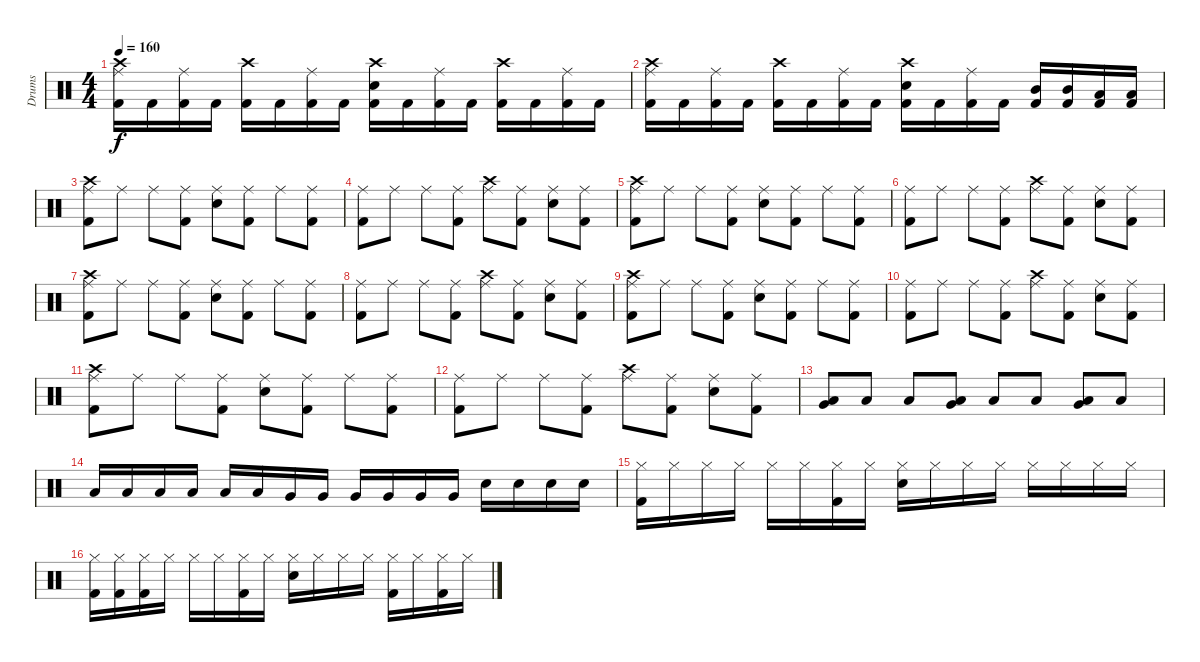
\track ("Drums" "Drums") {instrument percussion}
\staff {score}
\articulation defaults
\ts (4 4)
\tempo 160
\clef neutral
\ks c
("Crash high (hit)" "Ride (middle)" "Kick (hit) 2").16{dy f} "Kick (hit) 2".16 ("Ride (middle)" "Kick (hit) 2").16 "Kick (hit) 2".16 ("Crash high (hit)" "Kick (hit) 2").16 "Kick (hit) 2".16 ("Ride (middle)" "Kick (hit) 2").16 "Kick (hit) 2".16 ("Crash high (hit)" "Electric Snare (hit)" "Kick (hit) 2").16 "Kick (hit) 2".16 ("Ride (middle)" "Kick (hit) 2").16 "Kick (hit) 2".16 ("Crash high (hit)" "Kick (hit) 2").16 "Kick (hit) 2".16 ("Ride (middle)" "Kick (hit) 2").16 "Kick (hit) 2".16 |
("Crash high (hit)" "Ride (middle)" "Kick (hit) 2").16 "Kick (hit) 2".16 ("Ride (middle)" "Kick (hit) 2").16 "Kick (hit) 2".16 ("Crash high (hit)" "Kick (hit) 2").16 "Kick (hit) 2".16 ("Ride (middle)" "Kick (hit) 2").16 "Kick (hit) 2".16 ("Crash high (hit)" "Electric Snare (hit)" "Kick (hit) 2").16 "Kick (hit) 2".16 ("Ride (middle)" "Kick (hit) 2").16 "Kick (hit) 2".16 ("Mid Tom (hit)" "Kick (hit) 2").16 ("Mid Tom (hit)" "Kick (hit) 2").16 ("Low Tom (hit)" "Kick (hit) 2").16 ("Low Tom (hit)" "Kick (hit) 2").16 |
("Ride (middle)" "Crash high (hit)" "Kick (hit) 2").8 "Ride (middle)".8 "Ride (middle)".8 ("Ride (middle)" "Kick (hit) 2").8 ("Ride (middle)" "Electric Snare (hit)").8 ("Ride (middle)" "Kick (hit) 2").8 "Ride (middle)".8 ("Ride (middle)" "Kick (hit) 2").8 |
("Ride (middle)" "Kick (hit) 2").8 "Ride (middle)".8 "Ride (middle)".8 ("Ride (middle)" "Kick (hit) 2").8 ("Ride (middle)" "Crash high (hit)").8 ("Ride (middle)" "Kick (hit) 2").8 ("Ride (middle)" "Electric Snare (hit)").8 ("Ride (middle)" "Kick (hit) 2").8 |
("Ride (middle)" "Crash high (hit)" "Kick (hit) 2").8 "Ride (middle)".8 "Ride (middle)".8 ("Ride (middle)" "Kick (hit) 2").8 ("Ride (middle)" "Electric Snare (hit)").8 ("Ride (middle)" "Kick (hit) 2").8 "Ride (middle)".8 ("Ride (middle)" "Kick (hit) 2").8 |
("Ride (middle)" "Kick (hit) 2").8 "Ride (middle)".8 "Ride (middle)".8 ("Ride (middle)" "Kick (hit) 2").8 ("Ride (middle)" "Crash high (hit)").8 ("Ride (middle)" "Kick (hit) 2").8 ("Ride (middle)" "Electric Snare (hit)").8 ("Ride (middle)" "Kick (hit) 2").8 |
("Ride (middle)" "Crash high (hit)" "Kick (hit) 2").8 "Ride (middle)".8 "Ride (middle)".8 ("Ride (middle)" "Kick (hit) 2").8 ("Ride (middle)" "Electric Snare (hit)").8 ("Ride (middle)" "Kick (hit) 2").8 "Ride (middle)".8 ("Ride (middle)" "Kick (hit) 2").8 |
("Ride (middle)" "Kick (hit) 2").8 "Ride (middle)".8 "Ride (middle)".8 ("Ride (middle)" "Kick (hit) 2").8 ("Ride (middle)" "Crash high (hit)").8 ("Ride (middle)" "Kick (hit) 2").8 ("Ride (middle)" "Electric Snare (hit)").8 ("Ride (middle)" "Kick (hit) 2").8 |
("Ride (middle)" "Crash high (hit)" "Kick (hit) 2").8 "Ride (middle)".8 "Ride (middle)".8 ("Ride (middle)" "Kick (hit) 2").8 ("Ride (middle)" "Electric Snare (hit)").8 ("Ride (middle)" "Kick (hit) 2").8 "Ride (middle)".8 ("Ride (middle)" "Kick (hit) 2").8 |
("Ride (middle)" "Kick (hit) 2").8 "Ride (middle)".8 "Ride (middle)".8 ("Ride (middle)" "Kick (hit) 2").8 ("Ride (middle)" "Crash high (hit)").8 ("Ride (middle)" "Kick (hit) 2").8 ("Ride (middle)" "Electric Snare (hit)").8 ("Ride (middle)" "Kick (hit) 2").8 |
("Ride (middle)" "Crash high (hit)" "Kick (hit) 2").8 "Ride (middle)".8 "Ride (middle)".8 ("Ride (middle)" "Kick (hit) 2").8 ("Ride (middle)" "Electric Snare (hit)").8 ("Ride (middle)" "Kick (hit) 2").8 "Ride (middle)".8 ("Ride (middle)" "Kick (hit) 2").8 |
("Ride (middle)" "Kick (hit) 2").8 "Ride (middle)".8 "Ride (middle)".8 ("Ride (middle)" "Kick (hit) 2").8 ("Ride (middle)" "Crash high (hit)").8 ("Ride (middle)" "Kick (hit) 2").8 ("Ride (middle)" "Electric Snare (hit)").8 ("Ride (middle)" "Kick (hit) 2").8 |
("Low Tom (hit)" "Very Low Tom (hit)").8 "Low Tom (hit)".8 "Low Tom (hit)".8 ("Low Tom (hit)" "Very Low Tom (hit)").8 "Low Tom (hit)".8 "Low Tom (hit)".8 ("Low Tom (hit)" "Very Low Tom (hit)").8 "Low Tom (hit)".8 |
"Low Tom (hit)".16 "Low Tom (hit)".16 "Low Tom (hit)".16 "Low Tom (hit)".16 "Low Tom (hit)".16 "Low Tom (hit)".16 "Very Low Tom (hit)".16 "Very Low Tom (hit)".16 "Very Low Tom (hit)".16 "Very Low Tom (hit)".16 "Very Low Tom (hit)".16 "Very Low Tom (hit)".16 "Electric Snare (hit)".16 "Electric Snare (hit)".16 "Electric Snare (hit)".16 "Electric Snare (hit)".16 |
("Hi-Hat (closed)" "Kick (hit) 2").16 "Hi-Hat (closed)".16 "Hi-Hat (closed)".16 "Hi-Hat (closed)".16 "Hi-Hat (closed)".16 "Hi-Hat (closed)".16 ("Hi-Hat (closed)" "Kick (hit) 2").16 "Hi-Hat (closed)".16 ("Hi-Hat (closed)" "Electric Snare (hit)").16 "Hi-Hat (closed)".16 "Hi-Hat (closed)".16 "Hi-Hat (closed)".16 "Hi-Hat (closed)".16 "Hi-Hat (closed)".16 "Hi-Hat (closed)".16 "Hi-Hat (closed)".16 |
("Hi-Hat (closed)" "Kick (hit) 2").16 ("Hi-Hat (closed)" "Kick (hit) 2").16 ("Hi-Hat (closed)" "Kick (hit) 2").16 "Hi-Hat (closed)".16 "Hi-Hat (closed)".16 "Hi-Hat (closed)".16 ("Hi-Hat (closed)" "Kick (hit) 2").16 "Hi-Hat (closed)".16 ("Hi-Hat (closed)" "Electric Snare (hit)").16 "Hi-Hat (closed)".16 "Hi-Hat (closed)".16 "Hi-Hat (closed)".16 ("Hi-Hat (closed)" "Kick (hit) 2").16 "Hi-Hat (closed)".16 ("Hi-Hat (closed)" "Kick (hit) 2").16 "Hi-Hat (closed)".16
